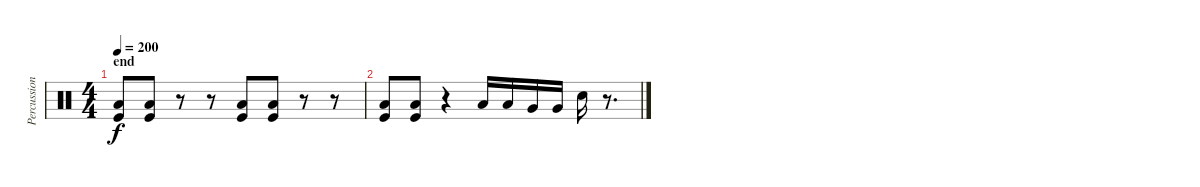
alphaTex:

\track ("Percussioni" "Percussion") {instrument percussion}
\staff {score}
\articulation defaults
\ts (4 4)
\section ("" "end")
\tempo 200
\clef neutral
\ks c
("Low Tom (hit)" "Kick (hit)").8{dy f} ("Low Tom (hit)" "Kick (hit)").8 r.8 r.8 ("Low Tom (hit)" "Kick (hit)").8 ("Low Tom (hit)" "Kick (hit)").8 r.8 r.8 |
("Low Tom (hit)" "Kick (hit)").8 ("Low Tom (hit)" "Kick (hit)").8 r.4 "Low Tom (hit)".16 "Low Tom (hit)".16 "Very Low Tom (hit)".16 "Very Low Tom (hit)".16 "Snare (hit) 2".16 r.8{d}
